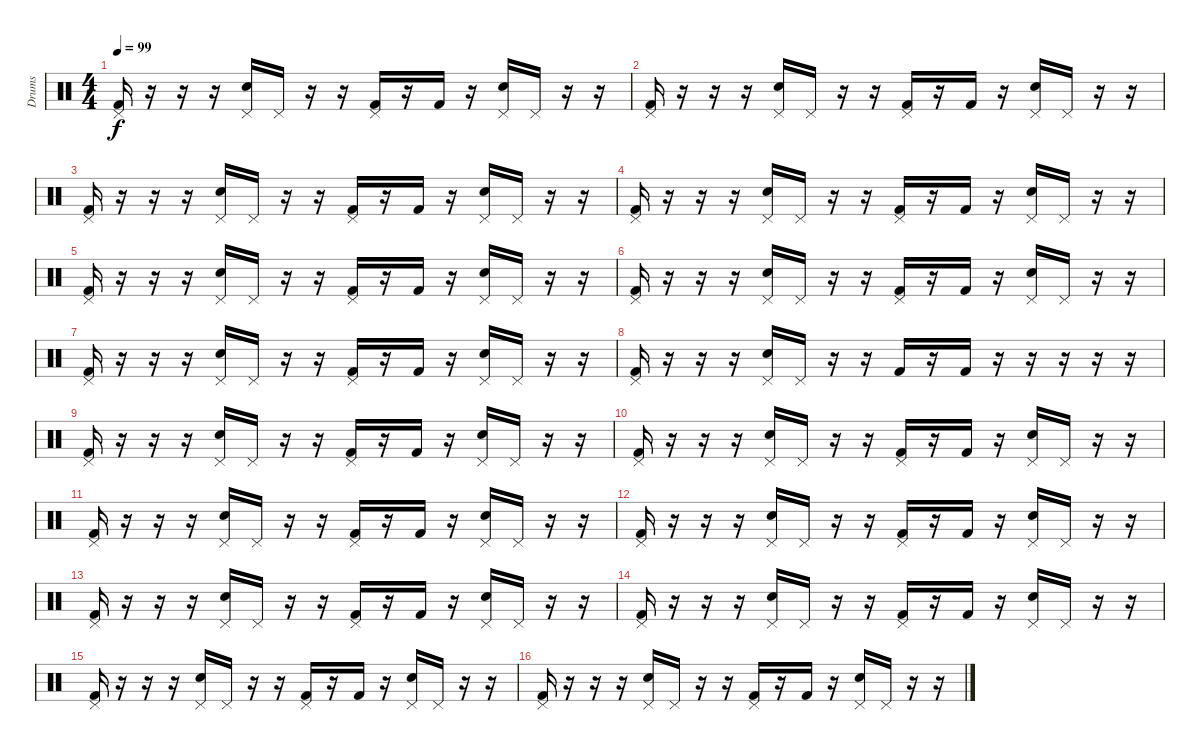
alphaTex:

\track ("Drums" "Drums") {instrument percussion}
\staff {score}
\articulation defaults
\ts (4 4)
\tempo 99
\clef neutral
\ks c
("Pedal Hi-Hat (hit)" "Kick (hit) 2").16{dy f} r.16 r.16 r.16 ("Pedal Hi-Hat (hit)" "Electric Snare (hit)").16 "Pedal Hi-Hat (hit)".16 r.16 r.16 ("Pedal Hi-Hat (hit)" "Kick (hit) 2").16 r.16 "Kick (hit) 2".16 r.16 ("Pedal Hi-Hat (hit)" "Electric Snare (hit)").16 "Pedal Hi-Hat (hit)".16 r.16 r.16 |
("Pedal Hi-Hat (hit)" "Kick (hit) 2").16 r.16 r.16 r.16 ("Pedal Hi-Hat (hit)" "Electric Snare (hit)").16 "Pedal Hi-Hat (hit)".16 r.16 r.16 ("Pedal Hi-Hat (hit)" "Kick (hit) 2").16 r.16 "Kick (hit) 2".16 r.16 ("Pedal Hi-Hat (hit)" "Electric Snare (hit)").16 "Pedal Hi-Hat (hit)".16 r.16 r.16 |
("Pedal Hi-Hat (hit)" "Kick (hit) 2").16 r.16 r.16 r.16 ("Pedal Hi-Hat (hit)" "Electric Snare (hit)").16 "Pedal Hi-Hat (hit)".16 r.16 r.16 ("Pedal Hi-Hat (hit)" "Kick (hit) 2").16 r.16 "Kick (hit) 2".16 r.16 ("Pedal Hi-Hat (hit)" "Electric Snare (hit)").16 "Pedal Hi-Hat (hit)".16 r.16 r.16 |
("Pedal Hi-Hat (hit)" "Kick (hit) 2").16 r.16 r.16 r.16 ("Pedal Hi-Hat (hit)" "Electric Snare (hit)").16 "Pedal Hi-Hat (hit)".16 r.16 r.16 ("Pedal Hi-Hat (hit)" "Kick (hit) 2").16 r.16 "Kick (hit) 2".16 r.16 ("Pedal Hi-Hat (hit)" "Electric Snare (hit)").16 "Pedal Hi-Hat (hit)".16 r.16 r.16 |
("Pedal Hi-Hat (hit)" "Kick (hit) 2").16 r.16 r.16 r.16 ("Pedal Hi-Hat (hit)" "Electric Snare (hit)").16 "Pedal Hi-Hat (hit)".16 r.16 r.16 ("Pedal Hi-Hat (hit)" "Kick (hit) 2").16 r.16 "Kick (hit) 2".16 r.16 ("Pedal Hi-Hat (hit)" "Electric Snare (hit)").16 "Pedal Hi-Hat (hit)".16 r.16 r.16 |
("Pedal Hi-Hat (hit)" "Kick (hit) 2").16 r.16 r.16 r.16 ("Pedal Hi-Hat (hit)" "Electric Snare (hit)").16 "Pedal Hi-Hat (hit)".16 r.16 r.16 ("Pedal Hi-Hat (hit)" "Kick (hit) 2").16 r.16 "Kick (hit) 2".16 r.16 ("Pedal Hi-Hat (hit)" "Electric Snare (hit)").16 "Pedal Hi-Hat (hit)".16 r.16 r.16 |
("Pedal Hi-Hat (hit)" "Kick (hit) 2").16 r.16 r.16 r.16 ("Pedal Hi-Hat (hit)" "Electric Snare (hit)").16 "Pedal Hi-Hat (hit)".16 r.16 r.16 ("Pedal Hi-Hat (hit)" "Kick (hit) 2").16 r.16 "Kick (hit) 2".16 r.16 ("Pedal Hi-Hat (hit)" "Electric Snare (hit)").16 "Pedal Hi-Hat (hit)".16 r.16 r.16 |
("Pedal Hi-Hat (hit)" "Kick (hit) 2").16 r.16 r.16 r.16 ("Pedal Hi-Hat (hit)" "Electric Snare (hit)").16 "Pedal Hi-Hat (hit)".16 r.16 r.16 "Kick (hit) 2".16 r.16 "Kick (hit) 2".16 r.16 r.16 r.16 r.16 r.16 |
("Pedal Hi-Hat (hit)" "Kick (hit) 2").16 r.16 r.16 r.16 ("Pedal Hi-Hat (hit)" "Electric Snare (hit)").16 "Pedal Hi-Hat (hit)".16 r.16 r.16 ("Pedal Hi-Hat (hit)" "Kick (hit) 2").16 r.16 "Kick (hit) 2".16 r.16 ("Pedal Hi-Hat (hit)" "Electric Snare (hit)").16 "Pedal Hi-Hat (hit)".16 r.16 r.16 |
("Pedal Hi-Hat (hit)" "Kick (hit) 2").16 r.16 r.16 r.16 ("Pedal Hi-Hat (hit)" "Electric Snare (hit)").16 "Pedal Hi-Hat (hit)".16 r.16 r.16 ("Pedal Hi-Hat (hit)" "Kick (hit) 2").16 r.16 "Kick (hit) 2".16 r.16 ("Pedal Hi-Hat (hit)" "Electric Snare (hit)").16 "Pedal Hi-Hat (hit)".16 r.16 r.16 |
("Pedal Hi-Hat (hit)" "Kick (hit) 2").16 r.16 r.16 r.16 ("Pedal Hi-Hat (hit)" "Electric Snare (hit)").16 "Pedal Hi-Hat (hit)".16 r.16 r.16 ("Pedal Hi-Hat (hit)" "Kick (hit) 2").16 r.16 "Kick (hit) 2".16 r.16 ("Pedal Hi-Hat (hit)" "Electric Snare (hit)").16 "Pedal Hi-Hat (hit)".16 r.16 r.16 |
("Pedal Hi-Hat (hit)" "Kick (hit) 2").16 r.16 r.16 r.16 ("Pedal Hi-Hat (hit)" "Electric Snare (hit)").16 "Pedal Hi-Hat (hit)".16 r.16 r.16 ("Pedal Hi-Hat (hit)" "Kick (hit) 2").16 r.16 "Kick (hit) 2".16 r.16 ("Pedal Hi-Hat (hit)" "Electric Snare (hit)").16 "Pedal Hi-Hat (hit)".16 r.16 r.16 |
("Pedal Hi-Hat (hit)" "Kick (hit) 2").16 r.16 r.16 r.16 ("Pedal Hi-Hat (hit)" "Electric Snare (hit)").16 "Pedal Hi-Hat (hit)".16 r.16 r.16 ("Pedal Hi-Hat (hit)" "Kick (hit) 2").16 r.16 "Kick (hit) 2".16 r.16 ("Pedal Hi-Hat (hit)" "Electric Snare (hit)").16 "Pedal Hi-Hat (hit)".16 r.16 r.16 |
("Pedal Hi-Hat (hit)" "Kick (hit) 2").16 r.16 r.16 r.16 ("Pedal Hi-Hat (hit)" "Electric Snare (hit)").16 "Pedal Hi-Hat (hit)".16 r.16 r.16 ("Pedal Hi-Hat (hit)" "Kick (hit) 2").16 r.16 "Kick (hit) 2".16 r.16 ("Pedal Hi-Hat (hit)" "Electric Snare (hit)").16 "Pedal Hi-Hat (hit)".16 r.16 r.16 |
("Pedal Hi-Hat (hit)" "Kick (hit) 2").16 r.16 r.16 r.16 ("Pedal Hi-Hat (hit)" "Electric Snare (hit)").16 "Pedal Hi-Hat (hit)".16 r.16 r.16 ("Pedal Hi-Hat (hit)" "Kick (hit) 2").16 r.16 "Kick (hit) 2".16 r.16 ("Pedal Hi-Hat (hit)" "Electric Snare (hit)").16 "Pedal Hi-Hat (hit)".16 r.16 r.16 |
("Pedal Hi-Hat (hit)" "Kick (hit) 2").16 r.16 r.16 r.16 ("Pedal Hi-Hat (hit)" "Electric Snare (hit)").16 "Pedal Hi-Hat (hit)".16 r.16 r.16 ("Pedal Hi-Hat (hit)" "Kick (hit) 2").16 r.16 "Kick (hit) 2".16 r.16 ("Pedal Hi-Hat (hit)" "Electric Snare (hit)").16 "Pedal Hi-Hat (hit)".16 r.16 r.16
